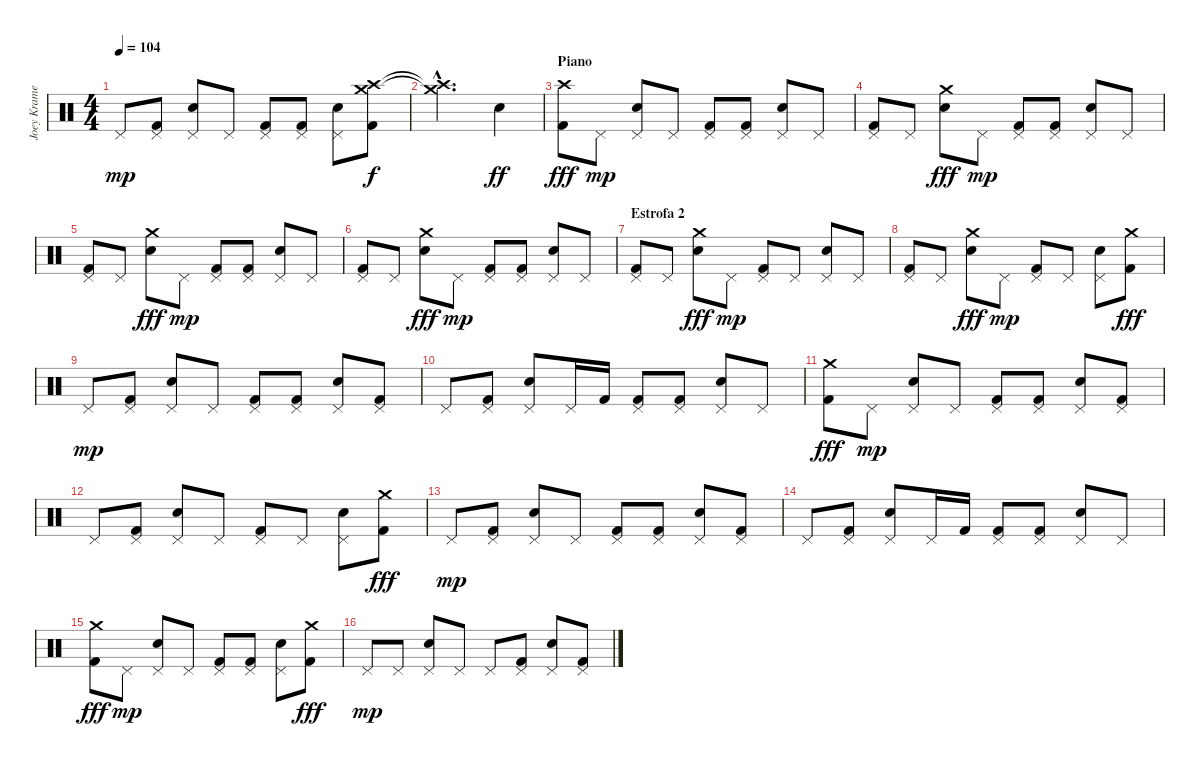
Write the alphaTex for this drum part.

\track ("Joey Kramer" "Joey Krame") {instrument percussion}
\staff {score}
\articulation defaults
\ts (4 4)
\tempo 104
\clef neutral
\ks c "Pedal Hi-Hat (hit)".8{dy mp}
("Pedal Hi-Hat (hit)" "Kick (hit) 2").8 ("Pedal Hi-Hat (hit)" "Snare (hit) 2").8 "Pedal Hi-Hat (hit)".8 ("Pedal Hi-Hat (hit)" "Kick (hit) 2").8 ("Pedal Hi-Hat (hit)" "Kick (hit) 2").8 ("Pedal Hi-Hat (hit)" "Snare (hit) 2").8 ("Crash medium (hit)" "Crash high (hit)" "Kick (hit) 2").8{dy f} |
("Crash medium (hit)"{hac t} "Crash high (hit)"{hac t}).2{d} "Snare (hit) 2".4{dy ff} |
\section ("" "Piano")
("Crash high (hit)" "Kick (hit) 2").8{dy fff} "Pedal Hi-Hat (hit)".8{dy mp} ("Pedal Hi-Hat (hit)" "Snare (hit) 2").8 "Pedal Hi-Hat (hit)".8 ("Pedal Hi-Hat (hit)" "Kick (hit) 2").8 ("Pedal Hi-Hat (hit)" "Kick (hit) 2").8 ("Pedal Hi-Hat (hit)" "Snare (hit) 2").8 "Pedal Hi-Hat (hit)".8 |
("Pedal Hi-Hat (hit)" "Kick (hit) 2").8 "Pedal Hi-Hat (hit)".8 ("Crash medium (hit)" "Snare (hit) 2").8{dy fff} "Pedal Hi-Hat (hit)".8{dy mp} ("Pedal Hi-Hat (hit)" "Kick (hit) 2").8 ("Pedal Hi-Hat (hit)" "Kick (hit) 2").8 ("Pedal Hi-Hat (hit)" "Snare (hit) 2").8 "Pedal Hi-Hat (hit)".8 |
("Pedal Hi-Hat (hit)" "Kick (hit) 2").8 "Pedal Hi-Hat (hit)".8 ("Crash medium (hit)" "Snare (hit) 2").8{dy fff} "Pedal Hi-Hat (hit)".8{dy mp} ("Pedal Hi-Hat (hit)" "Kick (hit) 2").8 ("Pedal Hi-Hat (hit)" "Kick (hit) 2").8 ("Pedal Hi-Hat (hit)" "Snare (hit) 2").8 "Pedal Hi-Hat (hit)".8 |
("Pedal Hi-Hat (hit)" "Kick (hit) 2").8 "Pedal Hi-Hat (hit)".8 ("Crash medium (hit)" "Snare (hit) 2").8{dy fff} "Pedal Hi-Hat (hit)".8{dy mp} ("Pedal Hi-Hat (hit)" "Kick (hit) 2").8 ("Pedal Hi-Hat (hit)" "Kick (hit) 2").8 ("Pedal Hi-Hat (hit)" "Snare (hit) 2").8 "Pedal Hi-Hat (hit)".8 |
\section ("" "Estrofa 2")
("Pedal Hi-Hat (hit)" "Kick (hit) 2").8 "Pedal Hi-Hat (hit)".8 ("Crash medium (hit)" "Snare (hit) 2").8{dy fff} "Pedal Hi-Hat (hit)".8{dy mp} ("Pedal Hi-Hat (hit)" "Kick (hit) 2").8 "Pedal Hi-Hat (hit)".8 ("Pedal Hi-Hat (hit)" "Snare (hit) 2").8 "Pedal Hi-Hat (hit)".8 |
("Pedal Hi-Hat (hit)" "Kick (hit) 2").8 "Pedal Hi-Hat (hit)".8 ("Crash medium (hit)" "Snare (hit) 2").8{dy fff} "Pedal Hi-Hat (hit)".8{dy mp} ("Pedal Hi-Hat (hit)" "Kick (hit) 2").8 "Pedal Hi-Hat (hit)".8 ("Pedal Hi-Hat (hit)" "Snare (hit) 2").8 ("Crash medium (hit)" "Kick (hit) 2").8{dy fff} |
"Pedal Hi-Hat (hit)".8{dy mp} ("Pedal Hi-Hat (hit)" "Kick (hit) 2").8 ("Pedal Hi-Hat (hit)" "Snare (hit) 2").8 "Pedal Hi-Hat (hit)".8 ("Pedal Hi-Hat (hit)" "Kick (hit) 2").8 ("Pedal Hi-Hat (hit)" "Kick (hit) 2").8 ("Pedal Hi-Hat (hit)" "Snare (hit) 2").8 ("Pedal Hi-Hat (hit)" "Kick (hit) 2").8 |
"Pedal Hi-Hat (hit)".8 ("Pedal Hi-Hat (hit)" "Kick (hit) 2").8 ("Pedal Hi-Hat (hit)" "Snare (hit) 2").8 "Pedal Hi-Hat (hit)".16 "Kick (hit) 2".16 ("Pedal Hi-Hat (hit)" "Kick (hit) 2").8 ("Pedal Hi-Hat (hit)" "Kick (hit) 2").8 ("Pedal Hi-Hat (hit)" "Snare (hit) 2").8 "Pedal Hi-Hat (hit)".8 |
("Crash medium (hit)" "Kick (hit) 2").8{dy fff} "Pedal Hi-Hat (hit)".8{dy mp} ("Pedal Hi-Hat (hit)" "Snare (hit) 2").8 "Pedal Hi-Hat (hit)".8 ("Pedal Hi-Hat (hit)" "Kick (hit) 2").8 ("Pedal Hi-Hat (hit)" "Kick (hit) 2").8 ("Pedal Hi-Hat (hit)" "Snare (hit) 2").8 ("Pedal Hi-Hat (hit)" "Kick (hit) 2").8 |
"Pedal Hi-Hat (hit)".8 ("Pedal Hi-Hat (hit)" "Kick (hit) 2").8 ("Pedal Hi-Hat (hit)" "Snare (hit) 2").8 "Pedal Hi-Hat (hit)".8 ("Pedal Hi-Hat (hit)" "Kick (hit) 2").8 "Pedal Hi-Hat (hit)".8 ("Pedal Hi-Hat (hit)" "Snare (hit) 2").8 ("Crash medium (hit)" "Kick (hit) 2").8{dy fff} |
"Pedal Hi-Hat (hit)".8{dy mp} ("Pedal Hi-Hat (hit)" "Kick (hit) 2").8 ("Pedal Hi-Hat (hit)" "Snare (hit) 2").8 "Pedal Hi-Hat (hit)".8 ("Pedal Hi-Hat (hit)" "Kick (hit) 2").8 ("Pedal Hi-Hat (hit)" "Kick (hit) 2").8 ("Pedal Hi-Hat (hit)" "Snare (hit) 2").8 ("Pedal Hi-Hat (hit)" "Kick (hit) 2").8 |
"Pedal Hi-Hat (hit)".8 ("Pedal Hi-Hat (hit)" "Kick (hit) 2").8 ("Pedal Hi-Hat (hit)" "Snare (hit) 2").8 "Pedal Hi-Hat (hit)".16 "Kick (hit) 2".16 ("Pedal Hi-Hat (hit)" "Kick (hit) 2").8 ("Pedal Hi-Hat (hit)" "Kick (hit) 2").8 ("Pedal Hi-Hat (hit)" "Snare (hit) 2").8 "Pedal Hi-Hat (hit)".8 |
("Crash medium (hit)" "Kick (hit) 2").8{dy fff} "Pedal Hi-Hat (hit)".8{dy mp} ("Pedal Hi-Hat (hit)" "Snare (hit) 2").8 "Pedal Hi-Hat (hit)".8 ("Pedal Hi-Hat (hit)" "Kick (hit) 2").8 ("Pedal Hi-Hat (hit)" "Kick (hit) 2").8 ("Pedal Hi-Hat (hit)" "Snare (hit) 2").8 ("Crash medium (hit)" "Kick (hit) 2").8{dy fff} |
"Pedal Hi-Hat (hit)".8{dy mp} "Pedal Hi-Hat (hit)".8 ("Pedal Hi-Hat (hit)" "Snare (hit) 2").8 "Pedal Hi-Hat (hit)".8 "Pedal Hi-Hat (hit)".8 ("Pedal Hi-Hat (hit)" "Kick (hit) 2").8 ("Pedal Hi-Hat (hit)" "Snare (hit) 2").8 ("Pedal Hi-Hat (hit)" "Kick (hit) 2").8
